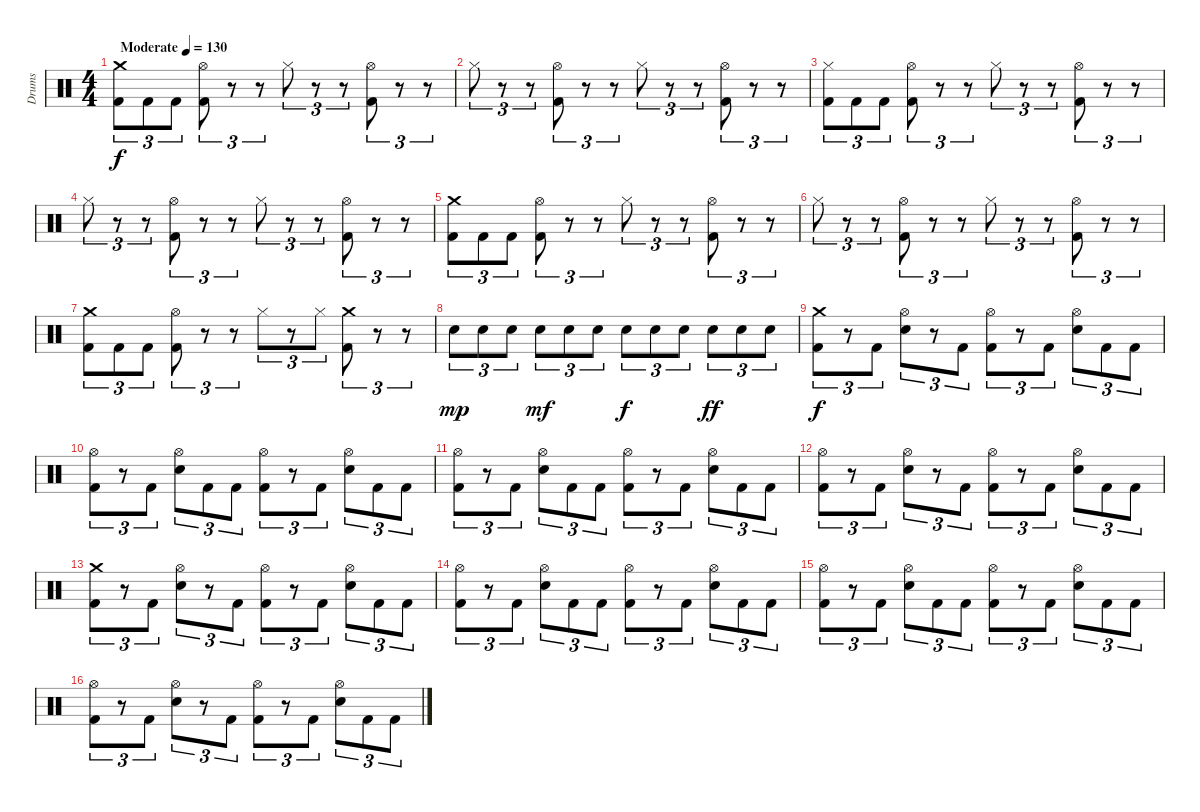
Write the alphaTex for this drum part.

\track ("Drums" "Drums") {instrument percussion}
\staff {score}
\articulation defaults
\ts (4 4)
\tempo (130 "Moderate")
\clef neutral
\ks c
("Crash medium (hit)" "Kick (hit) 2").8{tu (3 2) dy f} "Kick (hit) 2".8{tu (3 2)} "Kick (hit) 2".8{tu (3 2)} ("Hi-Hat (open)" "Kick (hit) 2").8{tu (3 2)} r.8{tu (3 2)} r.8{tu (3 2)} "Hi-Hat (closed)".8{tu (3 2)} r.8{tu (3 2)} r.8{tu (3 2)} ("Hi-Hat (open)" "Kick (hit) 2").8{tu (3 2)} r.8{tu (3 2)} r.8{tu (3 2)} |
"Hi-Hat (closed)".8{tu (3 2)} r.8{tu (3 2)} r.8{tu (3 2)} ("Hi-Hat (open)" "Kick (hit) 2").8{tu (3 2)} r.8{tu (3 2)} r.8{tu (3 2)} "Hi-Hat (closed)".8{tu (3 2)} r.8{tu (3 2)} r.8{tu (3 2)} ("Hi-Hat (open)" "Kick (hit) 2").8{tu (3 2)} r.8{tu (3 2)} r.8{tu (3 2)} |
("Hi-Hat (closed)" "Kick (hit) 2").8{tu (3 2)} "Kick (hit) 2".8{tu (3 2)} "Kick (hit) 2".8{tu (3 2)} ("Hi-Hat (open)" "Kick (hit) 2").8{tu (3 2)} r.8{tu (3 2)} r.8{tu (3 2)} "Hi-Hat (closed)".8{tu (3 2)} r.8{tu (3 2)} r.8{tu (3 2)} ("Hi-Hat (open)" "Kick (hit) 2").8{tu (3 2)} r.8{tu (3 2)} r.8{tu (3 2)} |
"Hi-Hat (closed)".8{tu (3 2)} r.8{tu (3 2)} r.8{tu (3 2)} ("Hi-Hat (open)" "Kick (hit) 2").8{tu (3 2)} r.8{tu (3 2)} r.8{tu (3 2)} "Hi-Hat (closed)".8{tu (3 2)} r.8{tu (3 2)} r.8{tu (3 2)} ("Hi-Hat (open)" "Kick (hit) 2").8{tu (3 2)} r.8{tu (3 2)} r.8{tu (3 2)} |
("Crash medium (hit)" "Kick (hit) 2").8{tu (3 2)} "Kick (hit) 2".8{tu (3 2)} "Kick (hit) 2".8{tu (3 2)} ("Hi-Hat (open)" "Kick (hit) 2").8{tu (3 2)} r.8{tu (3 2)} r.8{tu (3 2)} "Hi-Hat (closed)".8{tu (3 2)} r.8{tu (3 2)} r.8{tu (3 2)} ("Hi-Hat (open)" "Kick (hit) 2").8{tu (3 2)} r.8{tu (3 2)} r.8{tu (3 2)} |
"Hi-Hat (closed)".8{tu (3 2)} r.8{tu (3 2)} r.8{tu (3 2)} ("Hi-Hat (open)" "Kick (hit) 2").8{tu (3 2)} r.8{tu (3 2)} r.8{tu (3 2)} "Hi-Hat (closed)".8{tu (3 2)} r.8{tu (3 2)} r.8{tu (3 2)} ("Hi-Hat (open)" "Kick (hit) 2").8{tu (3 2)} r.8{tu (3 2)} r.8{tu (3 2)} |
("Crash medium (hit)" "Kick (hit) 2").8{tu (3 2)} "Kick (hit) 2".8{tu (3 2)} "Kick (hit) 2".8{tu (3 2)} ("Hi-Hat (open)" "Kick (hit) 2").8{tu (3 2)} r.8{tu (3 2)} r.8{tu (3 2)} "Hi-Hat (closed)".8{tu (3 2)} r.8{tu (3 2)} "Hi-Hat (closed)".8{tu (3 2)} ("Crash medium (hit)" "Kick (hit) 2").8{tu (3 2)} r.8{tu (3 2)} r.8{tu (3 2)} |
"Snare (hit) 2".8{tu (3 2) dy mp} "Snare (hit) 2".8{tu (3 2)} "Snare (hit) 2".8{tu (3 2)} "Snare (hit) 2".8{tu (3 2) dy mf} "Snare (hit) 2".8{tu (3 2)} "Snare (hit) 2".8{tu (3 2)} "Snare (hit) 2".8{tu (3 2) dy f} "Snare (hit) 2".8{tu (3 2)} "Snare (hit) 2".8{tu (3 2)} "Snare (hit) 2".8{tu (3 2) dy ff} "Snare (hit) 2".8{tu (3 2)} "Snare (hit) 2".8{tu (3 2)} |
("Crash medium (hit)" "Kick (hit) 2").8{tu (3 2) dy f} r.8{tu (3 2)} "Kick (hit) 2".8{tu (3 2)} ("Hi-Hat (open)" "Snare (hit) 2").8{tu (3 2)} r.8{tu (3 2)} "Kick (hit) 2".8{tu (3 2)} ("Hi-Hat (open)" "Kick (hit) 2").8{tu (3 2)} r.8{tu (3 2)} "Kick (hit) 2".8{tu (3 2)} ("Hi-Hat (open)" "Snare (hit) 2").8{tu (3 2)} "Kick (hit) 2".8{tu (3 2)} "Kick (hit) 2".8{tu (3 2)} |
("Hi-Hat (open)" "Kick (hit) 2").8{tu (3 2)} r.8{tu (3 2)} "Kick (hit) 2".8{tu (3 2)} ("Hi-Hat (open)" "Snare (hit) 2").8{tu (3 2)} "Kick (hit) 2".8{tu (3 2)} "Kick (hit) 2".8{tu (3 2)} ("Hi-Hat (open)" "Kick (hit) 2").8{tu (3 2)} r.8{tu (3 2)} "Kick (hit) 2".8{tu (3 2)} ("Hi-Hat (open)" "Snare (hit) 2").8{tu (3 2)} "Kick (hit) 2".8{tu (3 2)} "Kick (hit) 2".8{tu (3 2)} |
("Hi-Hat (open)" "Kick (hit) 2").8{tu (3 2)} r.8{tu (3 2)} "Kick (hit) 2".8{tu (3 2)} ("Hi-Hat (open)" "Snare (hit) 2").8{tu (3 2)} "Kick (hit) 2".8{tu (3 2)} "Kick (hit) 2".8{tu (3 2)} ("Hi-Hat (open)" "Kick (hit) 2").8{tu (3 2)} r.8{tu (3 2)} "Kick (hit) 2".8{tu (3 2)} ("Hi-Hat (open)" "Snare (hit) 2").8{tu (3 2)} "Kick (hit) 2".8{tu (3 2)} "Kick (hit) 2".8{tu (3 2)} |
("Hi-Hat (open)" "Kick (hit) 2").8{tu (3 2)} r.8{tu (3 2)} "Kick (hit) 2".8{tu (3 2)} ("Hi-Hat (open)" "Snare (hit) 2").8{tu (3 2)} r.8{tu (3 2)} "Kick (hit) 2".8{tu (3 2)} ("Hi-Hat (open)" "Kick (hit) 2").8{tu (3 2)} r.8{tu (3 2)} "Kick (hit) 2".8{tu (3 2)} ("Hi-Hat (open)" "Snare (hit) 2").8{tu (3 2)} "Kick (hit) 2".8{tu (3 2)} "Kick (hit) 2".8{tu (3 2)} |
("Crash medium (hit)" "Kick (hit) 2").8{tu (3 2)} r.8{tu (3 2)} "Kick (hit) 2".8{tu (3 2)} ("Hi-Hat (open)" "Snare (hit) 2").8{tu (3 2)} r.8{tu (3 2)} "Kick (hit) 2".8{tu (3 2)} ("Hi-Hat (open)" "Kick (hit) 2").8{tu (3 2)} r.8{tu (3 2)} "Kick (hit) 2".8{tu (3 2)} ("Hi-Hat (open)" "Snare (hit) 2").8{tu (3 2)} "Kick (hit) 2".8{tu (3 2)} "Kick (hit) 2".8{tu (3 2)} |
("Hi-Hat (open)" "Kick (hit) 2").8{tu (3 2)} r.8{tu (3 2)} "Kick (hit) 2".8{tu (3 2)} ("Hi-Hat (open)" "Snare (hit) 2").8{tu (3 2)} "Kick (hit) 2".8{tu (3 2)} "Kick (hit) 2".8{tu (3 2)} ("Hi-Hat (open)" "Kick (hit) 2").8{tu (3 2)} r.8{tu (3 2)} "Kick (hit) 2".8{tu (3 2)} ("Hi-Hat (open)" "Snare (hit) 2").8{tu (3 2)} "Kick (hit) 2".8{tu (3 2)} "Kick (hit) 2".8{tu (3 2)} |
("Hi-Hat (open)" "Kick (hit) 2").8{tu (3 2)} r.8{tu (3 2)} "Kick (hit) 2".8{tu (3 2)} ("Hi-Hat (open)" "Snare (hit) 2").8{tu (3 2)} "Kick (hit) 2".8{tu (3 2)} "Kick (hit) 2".8{tu (3 2)} ("Hi-Hat (open)" "Kick (hit) 2").8{tu (3 2)} r.8{tu (3 2)} "Kick (hit) 2".8{tu (3 2)} ("Hi-Hat (open)" "Snare (hit) 2").8{tu (3 2)} "Kick (hit) 2".8{tu (3 2)} "Kick (hit) 2".8{tu (3 2)} |
("Hi-Hat (open)" "Kick (hit) 2").8{tu (3 2)} r.8{tu (3 2)} "Kick (hit) 2".8{tu (3 2)} ("Hi-Hat (open)" "Snare (hit) 2").8{tu (3 2)} r.8{tu (3 2)} "Kick (hit) 2".8{tu (3 2)} ("Hi-Hat (open)" "Kick (hit) 2").8{tu (3 2)} r.8{tu (3 2)} "Kick (hit) 2".8{tu (3 2)} ("Hi-Hat (open)" "Snare (hit) 2").8{tu (3 2)} "Kick (hit) 2".8{tu (3 2)} "Kick (hit) 2".8{tu (3 2)}
